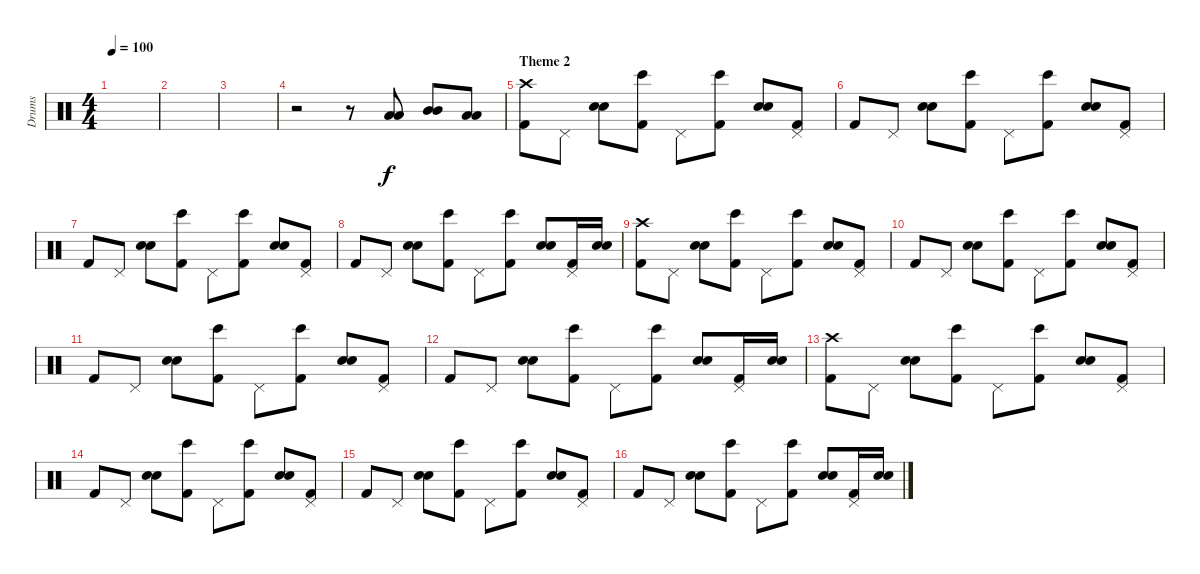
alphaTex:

\track ("Drums" "Drums") {instrument percussion}
\staff {score}
\articulation defaults
\ts (4 4)
\tempo 100
\clef neutral
\ks c
|
|
|
r.2 r.8 ("Low Tom (hit)" "Low Tom (hit)").8 ("Mid Tom (hit)" "Mid Tom (hit)").8 ("Low Tom (hit)" "Low Tom (hit)").8 |
\section ("" "Theme 2")
("Kick (hit) 2" "Crash high (hit)").8 "Pedal Hi-Hat (hit)".8 ("Snare (hit) 2" "Electric Snare (hit)").8 ("Kick (hit) 2" "Bongo High (hit)").8 "Pedal Hi-Hat (hit)".8 ("Kick (hit) 2" "Bongo High (hit)").8 ("Snare (hit) 2" "Electric Snare (hit)").8 ("Kick (hit) 2" "Pedal Hi-Hat (hit)").8 |
"Kick (hit) 2".8 "Pedal Hi-Hat (hit)".8 ("Snare (hit) 2" "Electric Snare (hit)").8 ("Kick (hit) 2" "Bongo High (hit)").8 "Pedal Hi-Hat (hit)".8 ("Kick (hit) 2" "Bongo High (hit)").8 ("Snare (hit) 2" "Electric Snare (hit)").8 ("Kick (hit) 2" "Pedal Hi-Hat (hit)").8 |
"Kick (hit) 2".8 "Pedal Hi-Hat (hit)".8 ("Snare (hit) 2" "Electric Snare (hit)").8 ("Kick (hit) 2" "Bongo High (hit)").8 "Pedal Hi-Hat (hit)".8 ("Kick (hit) 2" "Bongo High (hit)").8 ("Snare (hit) 2" "Electric Snare (hit)").8 ("Kick (hit) 2" "Pedal Hi-Hat (hit)").8 |
"Kick (hit) 2".8 "Pedal Hi-Hat (hit)".8 ("Snare (hit) 2" "Electric Snare (hit)").8 ("Kick (hit) 2" "Bongo High (hit)").8 "Pedal Hi-Hat (hit)".8 ("Kick (hit) 2" "Bongo High (hit)").8 ("Snare (hit) 2" "Electric Snare (hit)").8 ("Kick (hit) 2" "Pedal Hi-Hat (hit)").16 ("Snare (hit) 2" "Electric Snare (hit)").16 |
("Kick (hit) 2" "Crash high (hit)").8 "Pedal Hi-Hat (hit)".8 ("Snare (hit) 2" "Electric Snare (hit)").8 ("Kick (hit) 2" "Bongo High (hit)").8 "Pedal Hi-Hat (hit)".8 ("Kick (hit) 2" "Bongo High (hit)").8 ("Snare (hit) 2" "Electric Snare (hit)").8 ("Kick (hit) 2" "Pedal Hi-Hat (hit)").8 |
"Kick (hit) 2".8 "Pedal Hi-Hat (hit)".8 ("Snare (hit) 2" "Electric Snare (hit)").8 ("Kick (hit) 2" "Bongo High (hit)").8 "Pedal Hi-Hat (hit)".8 ("Kick (hit) 2" "Bongo High (hit)").8 ("Snare (hit) 2" "Electric Snare (hit)").8 ("Kick (hit) 2" "Pedal Hi-Hat (hit)").8 |
"Kick (hit) 2".8 "Pedal Hi-Hat (hit)".8 ("Snare (hit) 2" "Electric Snare (hit)").8 ("Kick (hit) 2" "Bongo High (hit)").8 "Pedal Hi-Hat (hit)".8 ("Kick (hit) 2" "Bongo High (hit)").8 ("Snare (hit) 2" "Electric Snare (hit)").8 ("Kick (hit) 2" "Pedal Hi-Hat (hit)").8 |
"Kick (hit) 2".8 "Pedal Hi-Hat (hit)".8 ("Snare (hit) 2" "Electric Snare (hit)").8 ("Kick (hit) 2" "Bongo High (hit)").8 "Pedal Hi-Hat (hit)".8 ("Kick (hit) 2" "Bongo High (hit)").8 ("Snare (hit) 2" "Electric Snare (hit)").8 ("Kick (hit) 2" "Pedal Hi-Hat (hit)").16 ("Snare (hit) 2" "Electric Snare (hit)").16 |
("Kick (hit) 2" "Crash high (hit)").8 "Pedal Hi-Hat (hit)".8 ("Snare (hit) 2" "Electric Snare (hit)").8 ("Kick (hit) 2" "Bongo High (hit)").8 "Pedal Hi-Hat (hit)".8 ("Kick (hit) 2" "Bongo High (hit)").8 ("Snare (hit) 2" "Electric Snare (hit)").8 ("Kick (hit) 2" "Pedal Hi-Hat (hit)").8 |
"Kick (hit) 2".8 "Pedal Hi-Hat (hit)".8 ("Snare (hit) 2" "Electric Snare (hit)").8 ("Kick (hit) 2" "Bongo High (hit)").8 "Pedal Hi-Hat (hit)".8 ("Kick (hit) 2" "Bongo High (hit)").8 ("Snare (hit) 2" "Electric Snare (hit)").8 ("Kick (hit) 2" "Pedal Hi-Hat (hit)").8 |
"Kick (hit) 2".8 "Pedal Hi-Hat (hit)".8 ("Snare (hit) 2" "Electric Snare (hit)").8 ("Kick (hit) 2" "Bongo High (hit)").8 "Pedal Hi-Hat (hit)".8 ("Kick (hit) 2" "Bongo High (hit)").8 ("Snare (hit) 2" "Electric Snare (hit)").8 ("Kick (hit) 2" "Pedal Hi-Hat (hit)").8 |
"Kick (hit) 2".8 "Pedal Hi-Hat (hit)".8 ("Snare (hit) 2" "Electric Snare (hit)").8 ("Kick (hit) 2" "Bongo High (hit)").8 "Pedal Hi-Hat (hit)".8 ("Kick (hit) 2" "Bongo High (hit)").8 ("Snare (hit) 2" "Electric Snare (hit)").8 ("Kick (hit) 2" "Pedal Hi-Hat (hit)").16 ("Snare (hit) 2" "Electric Snare (hit)").16
